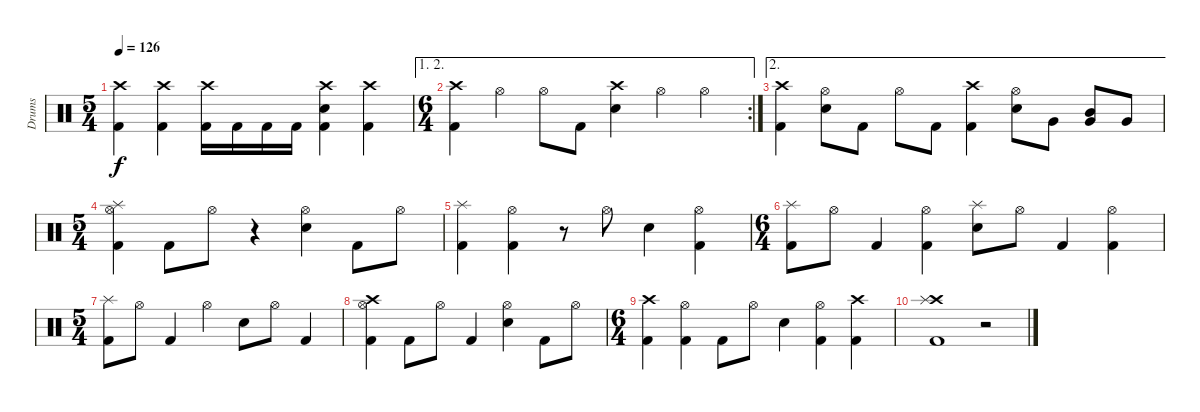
\track ("Drums" "Drums") {instrument percussion}
\staff {score}
\articulation defaults
\ts (5 4)
\tempo 126
\clef neutral
\ks c
("Crash high (hit)" "Kick (hit) 2").4{dy f} ("Crash high (hit)" "Kick (hit) 2").4 ("Crash high (hit)" "Kick (hit) 2").16 "Kick (hit) 2".16 "Kick (hit) 2".16 "Kick (hit) 2".16 ("Crash high (hit)" "Snare (hit) 2" "Kick (hit) 2").4 ("Crash high (hit)" "Kick (hit) 2").4 |
\ae (1 2)
\rc 2
\ts (6 4)
("Crash high (hit)" "Kick (hit) 2").4 "Hi-Hat (open)".4 "Hi-Hat (open)".8 "Kick (hit) 2".8 ("Crash high (hit)" "Snare (hit) 2").4 "Hi-Hat (open)".4 "Hi-Hat (open)".4 |
\ae 2
("Crash high (hit)" "Kick (hit) 2").4 ("Hi-Hat (open)" "Snare (hit) 2").8 "Kick (hit) 2".8 "Hi-Hat (open)".8 "Kick (hit) 2".8 ("Crash high (hit)" "Kick (hit) 2").4 ("Hi-Hat (open)" "Snare (hit) 2").8 "Very Low Tom (hit)".8 ("Mid Tom (hit)" "Very Low Tom (hit)").8 "Very Low Tom (hit)".8 |
\ts (5 4)
("Splash (hit)" "Hi-Hat (open)" "Kick (hit) 2").4 "Kick (hit) 2".8 "Hi-Hat (open)".8 r.4 ("Hi-Hat (open)" "Snare (hit) 2").4 "Kick (hit) 2".8 "Hi-Hat (open)".8 |
("Splash (hit)" "Kick (hit) 2").4 ("Hi-Hat (open)" "Kick (hit) 2").4 r.8 "Hi-Hat (open)".8 "Snare (hit) 2".4 ("Hi-Hat (open)" "Kick (hit) 2").4 |
\ts (6 4)
("Splash (hit)" "Kick (hit) 2").8 "Hi-Hat (open)".8 "Kick (hit) 2".4 ("Hi-Hat (open)" "Kick (hit) 2").4 ("Splash (hit)" "Snare (hit) 2").8 "Hi-Hat (open)".8 "Kick (hit) 2".4 ("Hi-Hat (open)" "Kick (hit) 2").4 |
\ts (5 4)
("Splash (hit)" "Kick (hit) 2").8 "Hi-Hat (open)".8 "Kick (hit) 2".4 "Hi-Hat (open)".4 "Snare (hit) 2".8 "Hi-Hat (open)".8 "Kick (hit) 2".4 |
("Crash high (hit)" "Hi-Hat (open)" "Kick (hit) 2").4 "Kick (hit) 2".8 "Hi-Hat (open)".8 "Kick (hit) 2".4 ("Hi-Hat (open)" "Snare (hit) 2").4 "Kick (hit) 2".8 "Hi-Hat (open)".8 |
\ts (6 4)
("Crash high (hit)" "Kick (hit) 2").4 ("Hi-Hat (open)" "Kick (hit) 2").4 "Kick (hit) 2".8 "Hi-Hat (open)".8 "Snare (hit) 2".4 ("Hi-Hat (open)" "Kick (hit) 2").4 ("Crash high (hit)" "Kick (hit) 2").4 |
("Crash high (hit)" "Splash (hit)" "Kick (hit) 2").1 r.2
